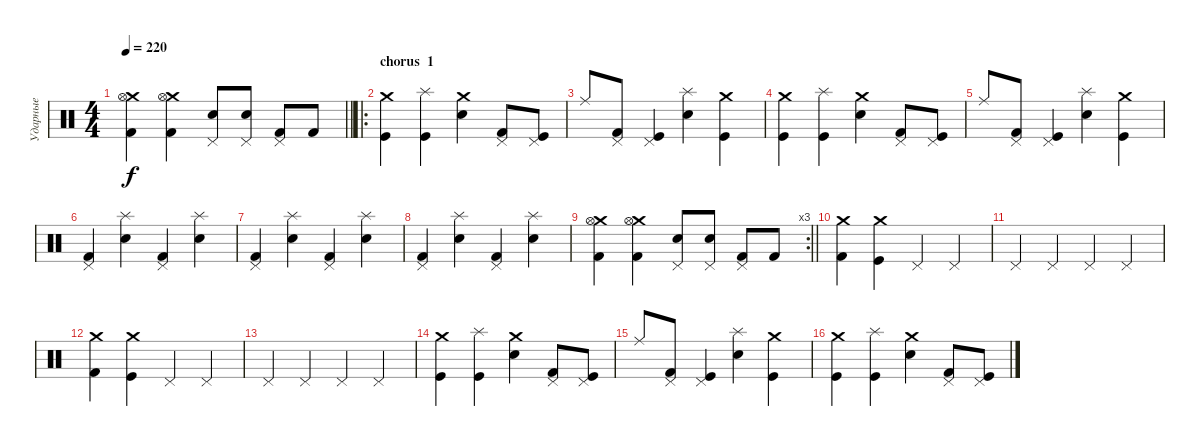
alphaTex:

\track ("Ударные" "Ударные") {instrument percussion}
\staff
\articulation defaults
\ts (4 4)
\tempo 220
\clef neutral
\barLineRight lightlight
\ks c
("Crash medium (hit)" "Hi-Hat (open)" "Kick (hit) 2").4{dy f} ("Crash medium (hit)" "Hi-Hat (open)" "Kick (hit) 2").4 ("Pedal Hi-Hat (hit)" "Electric Snare (hit)").8 ("Pedal Hi-Hat (hit)" "Electric Snare (hit)").8 ("Pedal Hi-Hat (hit)" "Kick (hit) 2").8 "Kick (hit) 2".8 |
\ro
\section ("" "chorus  1")
("Crash medium (hit)" "Kick (hit)").4 ("Splash (hit)" "Kick (hit)").4 ("Crash medium (hit)" "Electric Snare (hit)").4 ("Pedal Hi-Hat (hit)" "Kick (hit) 2").8 ("Pedal Hi-Hat (hit)" "Kick (hit)").8 |
"Ride (middle)".8 ("Pedal Hi-Hat (hit)" "Kick (hit) 2").8 ("Pedal Hi-Hat (hit)" "Kick (hit)").4 ("Splash (hit)" "Electric Snare (hit)").4 ("Crash medium (hit)" "Kick (hit)").4 |
("Crash medium (hit)" "Kick (hit)").4 ("Splash (hit)" "Kick (hit)").4 ("Crash medium (hit)" "Electric Snare (hit)").4 ("Pedal Hi-Hat (hit)" "Kick (hit) 2").8 ("Pedal Hi-Hat (hit)" "Kick (hit)").8 |
"Ride (middle)".8 ("Pedal Hi-Hat (hit)" "Kick (hit) 2").8 ("Pedal Hi-Hat (hit)" "Kick (hit)").4 ("Splash (hit)" "Electric Snare (hit)").4 ("Crash medium (hit)" "Kick (hit)").4 |
("Pedal Hi-Hat (hit)" "Kick (hit) 2").4 ("Splash (hit)" "Electric Snare (hit)").4 ("Pedal Hi-Hat (hit)" "Kick (hit) 2").4 ("Splash (hit)" "Electric Snare (hit)").4 |
("Pedal Hi-Hat (hit)" "Kick (hit) 2").4 ("Splash (hit)" "Electric Snare (hit)").4 ("Pedal Hi-Hat (hit)" "Kick (hit) 2").4 ("Splash (hit)" "Electric Snare (hit)").4 |
("Pedal Hi-Hat (hit)" "Kick (hit) 2").4 ("Splash (hit)" "Electric Snare (hit)").4 ("Pedal Hi-Hat (hit)" "Kick (hit) 2").4 ("Splash (hit)" "Electric Snare (hit)").4 |
\rc 3
\barLineRight lightlight
("Crash medium (hit)" "Hi-Hat (open)" "Kick (hit) 2").4 ("Crash medium (hit)" "Hi-Hat (open)" "Kick (hit) 2").4 ("Pedal Hi-Hat (hit)" "Electric Snare (hit)").8 ("Pedal Hi-Hat (hit)" "Electric Snare (hit)").8 ("Pedal Hi-Hat (hit)" "Kick (hit) 2").8 "Kick (hit) 2".8 |
("Crash medium (hit)" "Kick (hit) 2").4 ("Crash medium (hit)" "Kick (hit)").4 "Pedal Hi-Hat (hit)".4 "Pedal Hi-Hat (hit)".4 |
"Pedal Hi-Hat (hit)".4 "Pedal Hi-Hat (hit)".4 "Pedal Hi-Hat (hit)".4 "Pedal Hi-Hat (hit)".4 |
("Crash medium (hit)" "Kick (hit) 2").4 ("Crash medium (hit)" "Kick (hit)").4 "Pedal Hi-Hat (hit)".4 "Pedal Hi-Hat (hit)".4 |
"Pedal Hi-Hat (hit)".4 "Pedal Hi-Hat (hit)".4 "Pedal Hi-Hat (hit)".4 "Pedal Hi-Hat (hit)".4 |
("Crash medium (hit)" "Kick (hit)").4 ("Splash (hit)" "Kick (hit)").4 ("Crash medium (hit)" "Electric Snare (hit)").4 ("Pedal Hi-Hat (hit)" "Kick (hit) 2").8 ("Pedal Hi-Hat (hit)" "Kick (hit)").8 |
"Ride (middle)".8 ("Pedal Hi-Hat (hit)" "Kick (hit) 2").8 ("Pedal Hi-Hat (hit)" "Kick (hit)").4 ("Splash (hit)" "Electric Snare (hit)").4 ("Crash medium (hit)" "Kick (hit)").4 |
("Crash medium (hit)" "Kick (hit)").4 ("Splash (hit)" "Kick (hit)").4 ("Crash medium (hit)" "Electric Snare (hit)").4 ("Pedal Hi-Hat (hit)" "Kick (hit) 2").8 ("Pedal Hi-Hat (hit)" "Kick (hit)").8
